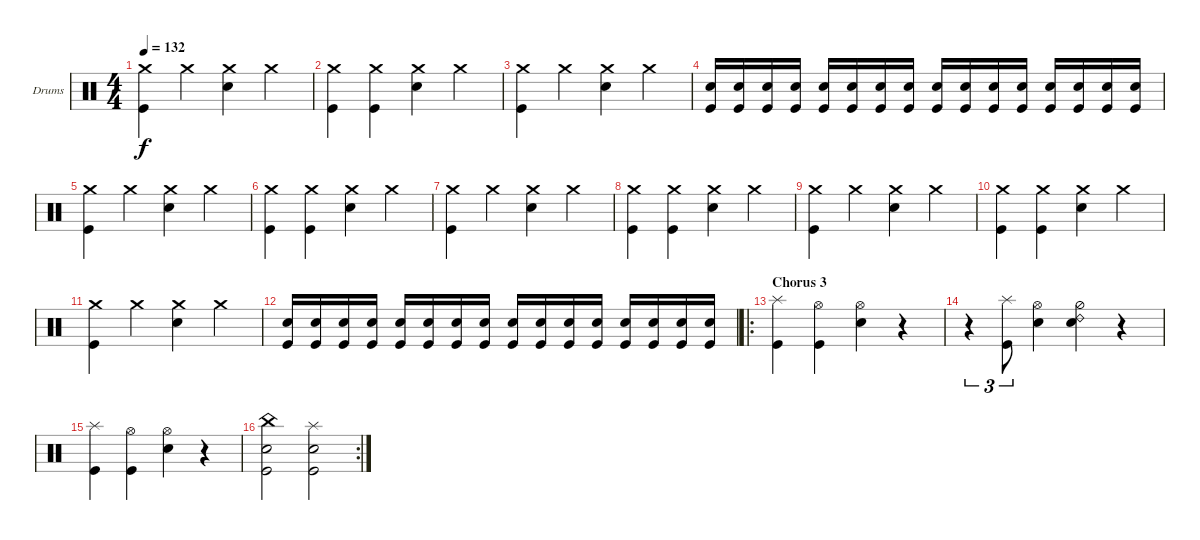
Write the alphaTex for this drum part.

\bracketExtendMode groupsimilarinstruments
\firstSystemTrackNameOrientation horizontal
\otherSystemsTrackNameOrientation horizontal
\track ("Drumkit" "Drums") {instrument percussion}
\staff {score}
\articulation defaults
\ts (4 4)
\tempo 132
\clef neutral
\ks c
("Kick (hit)" "Crash medium (hit)").4{dy f} "Crash medium (hit)".4 ("Snare (hit) 2" "Crash medium (hit)").4 "Crash medium (hit)".4 |
("Kick (hit)" "Crash medium (hit)").4 ("Kick (hit)" "Crash medium (hit)").4 ("Snare (hit) 2" "Crash medium (hit)").4 "Crash medium (hit)".4 |
("Kick (hit)" "Crash medium (hit)").4 "Crash medium (hit)".4 ("Snare (hit) 2" "Crash medium (hit)").4 "Crash medium (hit)".4 |
("Snare (hit) 2" "Kick (hit)").16 ("Snare (hit) 2" "Kick (hit)").16 ("Snare (hit) 2" "Kick (hit)").16 ("Snare (hit) 2" "Kick (hit)").16 ("Snare (hit) 2" "Kick (hit)").16 ("Snare (hit) 2" "Kick (hit)").16 ("Snare (hit) 2" "Kick (hit)").16 ("Snare (hit) 2" "Kick (hit)").16 ("Snare (hit) 2" "Kick (hit)").16 ("Snare (hit) 2" "Kick (hit)").16 ("Snare (hit) 2" "Kick (hit)").16 ("Snare (hit) 2" "Kick (hit)").16 ("Snare (hit) 2" "Kick (hit)").16 ("Snare (hit) 2" "Kick (hit)").16 ("Snare (hit) 2" "Kick (hit)").16 ("Snare (hit) 2" "Kick (hit)").16 |
("Kick (hit)" "Crash medium (hit)").4 "Crash medium (hit)".4 ("Snare (hit) 2" "Crash medium (hit)").4 "Crash medium (hit)".4 |
("Kick (hit)" "Crash medium (hit)").4 ("Kick (hit)" "Crash medium (hit)").4 ("Snare (hit) 2" "Crash medium (hit)").4 "Crash medium (hit)".4 |
("Kick (hit)" "Crash medium (hit)").4 "Crash medium (hit)".4 ("Snare (hit) 2" "Crash medium (hit)").4 "Crash medium (hit)".4 |
("Kick (hit)" "Crash medium (hit)").4 ("Kick (hit)" "Crash medium (hit)").4 ("Snare (hit) 2" "Crash medium (hit)").4 "Crash medium (hit)".4 |
("Kick (hit)" "Crash medium (hit)").4 "Crash medium (hit)".4 ("Snare (hit) 2" "Crash medium (hit)").4 "Crash medium (hit)".4 |
("Kick (hit)" "Crash medium (hit)").4 ("Kick (hit)" "Crash medium (hit)").4 ("Snare (hit) 2" "Crash medium (hit)").4 "Crash medium (hit)".4 |
("Kick (hit)" "Crash medium (hit)").4 "Crash medium (hit)".4 ("Snare (hit) 2" "Crash medium (hit)").4 "Crash medium (hit)".4 |
("Snare (hit) 2" "Kick (hit)").16 ("Snare (hit) 2" "Kick (hit)").16 ("Snare (hit) 2" "Kick (hit)").16 ("Snare (hit) 2" "Kick (hit)").16 ("Snare (hit) 2" "Kick (hit)").16 ("Snare (hit) 2" "Kick (hit)").16 ("Snare (hit) 2" "Kick (hit)").16 ("Snare (hit) 2" "Kick (hit)").16 ("Snare (hit) 2" "Kick (hit)").16 ("Snare (hit) 2" "Kick (hit)").16 ("Snare (hit) 2" "Kick (hit)").16 ("Snare (hit) 2" "Kick (hit)").16 ("Snare (hit) 2" "Kick (hit)").16 ("Snare (hit) 2" "Kick (hit)").16 ("Snare (hit) 2" "Kick (hit)").16 ("Snare (hit) 2" "Kick (hit)").16 |
\ro
\section ("" "Chorus 3")
("Kick (hit)" "Splash (hit)").4 ("Kick (hit)" "Hi-Hat (open)").4 ("Snare (hit) 2" "Hi-Hat (open)").4 r.4 |
r.4{tu (3 2)} ("Kick (hit)" "Splash (hit)").8{tu (3 2)} ("Snare (hit) 2" "Hi-Hat (open)").4 ("Snare (hit) 2" "Hi-Hat (half)" "Ride (bell) 2").4 r.4 |
("Kick (hit)" "Splash (hit)").4 ("Kick (hit)" "Hi-Hat (open)").4 ("Snare (hit) 2" "Hi-Hat (open)").4 r.4 |
\rc 2
("Snare (hit) 2" "Kick (hit)" "China (hit)").2 ("Snare (hit) 2" "Kick (hit)" "Splash (hit)").2
